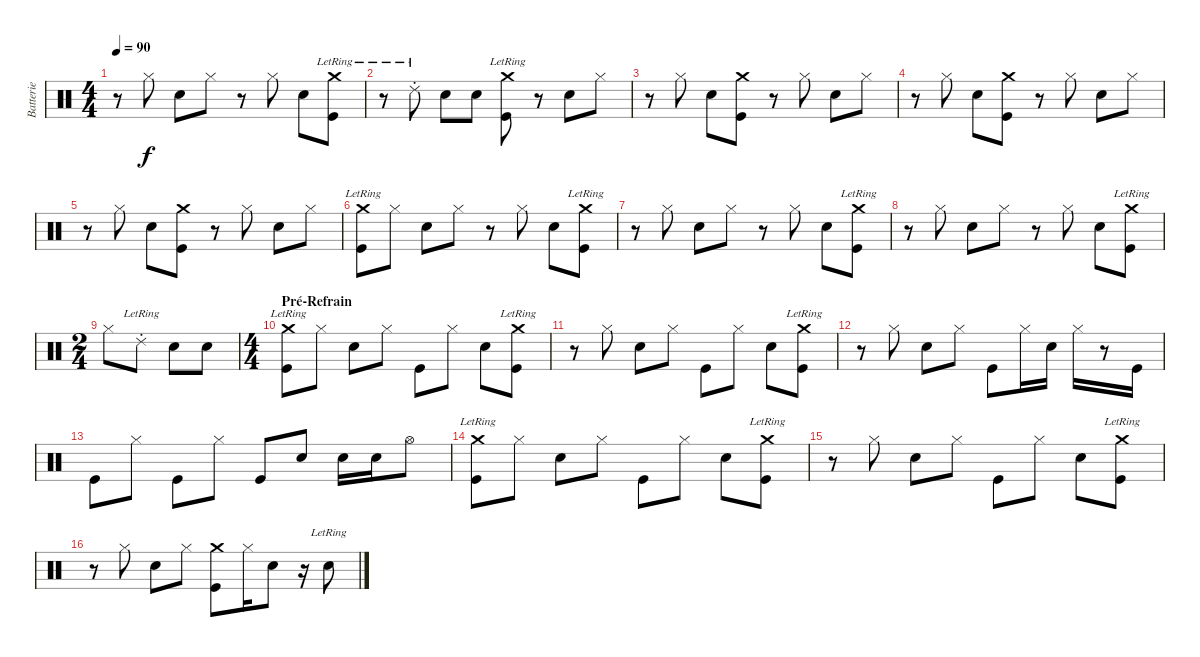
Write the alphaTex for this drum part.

\track ("Batterie" "Batterie") {instrument percussion}
\staff {score}
\articulation defaults
\ts (4 4)
\tempo 90
\clef neutral
\ks c
r.8{dy f} "Hi-Hat (closed)".8 "Electric Snare (hit)".8 "Hi-Hat (closed)".8 r.8 "Hi-Hat (closed)".8 "Electric Snare (hit)".8 ("Crash medium (hit)"{lr} "Kick (hit)").8 |
r.8 "Ride (choke) 2"{lr}.8 "Electric Snare (hit)".8 "Electric Snare (hit)".8 ("Crash medium (hit)"{lr} "Kick (hit)").8 r.8 "Electric Snare (hit)".8 "Hi-Hat (closed)".8 |
r.8 "Hi-Hat (closed)".8 "Electric Snare (hit)".8 ("Crash medium (hit)" "Kick (hit)").8 r.8 "Hi-Hat (closed)".8 "Electric Snare (hit)".8 "Hi-Hat (closed)".8 |
r.8 "Hi-Hat (closed)".8 "Electric Snare (hit)".8 ("Crash medium (hit)" "Kick (hit)").8 r.8 "Hi-Hat (closed)".8 "Electric Snare (hit)".8 "Hi-Hat (closed)".8 |
r.8 "Hi-Hat (closed)".8 "Electric Snare (hit)".8 ("Crash medium (hit)" "Kick (hit)").8 r.8 "Hi-Hat (closed)".8 "Electric Snare (hit)".8 "Hi-Hat (closed)".8 |
("Crash medium (hit)"{lr} "Kick (hit)").8 "Hi-Hat (closed)".8 "Electric Snare (hit)".8 "Hi-Hat (closed)".8 r.8 "Hi-Hat (closed)".8 "Electric Snare (hit)".8 ("Crash medium (hit)"{lr} "Kick (hit)").8 |
r.8 "Hi-Hat (closed)".8 "Electric Snare (hit)".8 "Hi-Hat (closed)".8 r.8 "Hi-Hat (closed)".8 "Electric Snare (hit)".8 ("Crash medium (hit)"{lr} "Kick (hit)").8 |
r.8 "Hi-Hat (closed)".8 "Electric Snare (hit)".8 "Hi-Hat (closed)".8 r.8 "Hi-Hat (closed)".8 "Electric Snare (hit)".8 ("Crash medium (hit)"{lr} "Kick (hit)").8 |
\ts (2 4)
"Hi-Hat (closed)".8 "Ride (choke) 2"{lr}.8 "Electric Snare (hit)".8 "Electric Snare (hit)".8 |
\ts (4 4)
\section ("" "Pré-Refrain")
("Crash medium (hit)"{lr} "Kick (hit)").8 "Hi-Hat (closed)".8 "Electric Snare (hit)".8 "Hi-Hat (closed)".8 "Kick (hit)".8 "Hi-Hat (closed)".8 "Electric Snare (hit)".8 ("Crash medium (hit)"{lr} "Kick (hit)").8 |
r.8 "Hi-Hat (closed)".8 "Electric Snare (hit)".8 "Hi-Hat (closed)".8 "Kick (hit)".8 "Hi-Hat (closed)".8 "Electric Snare (hit)".8 ("Crash medium (hit)"{lr} "Kick (hit)").8 |
r.8 "Hi-Hat (closed)".8 "Electric Snare (hit)".8 "Hi-Hat (closed)".8 "Kick (hit)".8 "Hi-Hat (closed)".16 "Electric Snare (hit)".16 "Hi-Hat (closed)".16 r.8 "Kick (hit)".16 |
"Kick (hit)".8 "Hi-Hat (closed)".8 "Kick (hit)".8 "Hi-Hat (closed)".8 "Kick (hit)".8 "Electric Snare (hit)".8 "Electric Snare (hit)".16 "Electric Snare (hit)".16 "Hi-Hat (open)".8 |
("Crash medium (hit)"{lr} "Kick (hit)").8 "Hi-Hat (closed)".8 "Electric Snare (hit)".8 "Hi-Hat (closed)".8 "Kick (hit)".8 "Hi-Hat (closed)".8 "Electric Snare (hit)".8 ("Crash medium (hit)"{lr} "Kick (hit)").8 |
r.8 "Hi-Hat (closed)".8 "Electric Snare (hit)".8 "Hi-Hat (closed)".8 "Kick (hit)".8 "Hi-Hat (closed)".8 "Electric Snare (hit)".8 ("Crash medium (hit)"{lr} "Kick (hit)").8 |
r.8 "Hi-Hat (closed)".8 "Electric Snare (hit)".8 "Hi-Hat (closed)".8 ("Crash medium (hit)" "Kick (hit)").8 "Hi-Hat (closed)".16 "Electric Snare (hit)".8 r.16 "Electric Snare (hit)"{lr}.8
